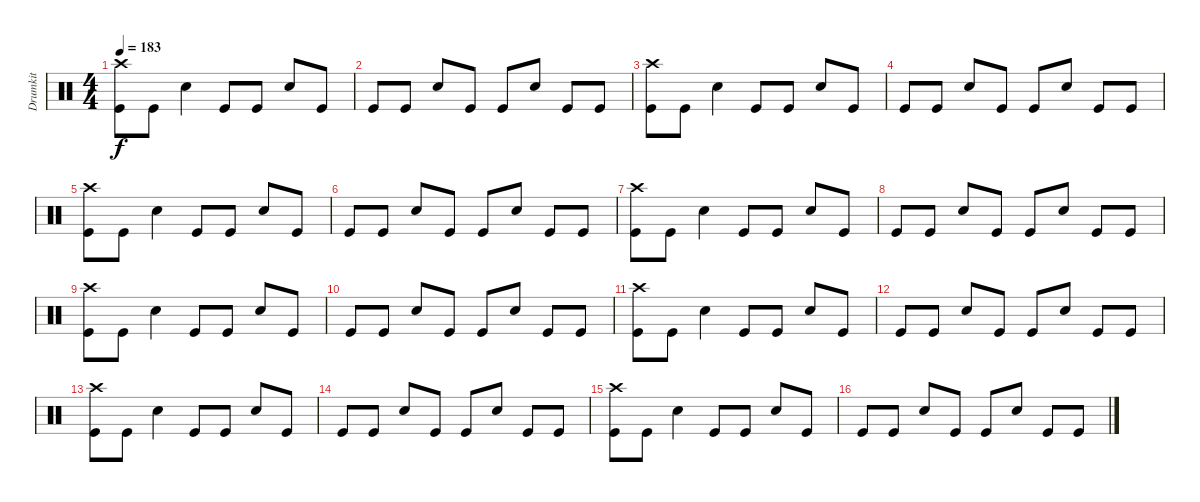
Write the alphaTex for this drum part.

\track ("Drumkit" "Drumkit") {instrument percussion}
\staff {score}
\articulation defaults
\ts (4 4)
\tempo 183
\clef neutral
\ks c
("Crash high (hit)" "Kick (hit)").8{dy f} "Kick (hit)".8 "Snare (hit) 2".4 "Kick (hit)".8 "Kick (hit)".8 "Snare (hit) 2".8 "Kick (hit)".8 |
"Kick (hit)".8 "Kick (hit)".8 "Snare (hit) 2".8 "Kick (hit)".8 "Kick (hit)".8 "Snare (hit) 2".8 "Kick (hit)".8 "Kick (hit)".8 |
("Crash high (hit)" "Kick (hit)").8 "Kick (hit)".8 "Snare (hit) 2".4 "Kick (hit)".8 "Kick (hit)".8 "Snare (hit) 2".8 "Kick (hit)".8 |
"Kick (hit)".8 "Kick (hit)".8 "Snare (hit) 2".8 "Kick (hit)".8 "Kick (hit)".8 "Snare (hit) 2".8 "Kick (hit)".8 "Kick (hit)".8 |
("Crash high (hit)" "Kick (hit)").8 "Kick (hit)".8 "Snare (hit) 2".4 "Kick (hit)".8 "Kick (hit)".8 "Snare (hit) 2".8 "Kick (hit)".8 |
"Kick (hit)".8 "Kick (hit)".8 "Snare (hit) 2".8 "Kick (hit)".8 "Kick (hit)".8 "Snare (hit) 2".8 "Kick (hit)".8 "Kick (hit)".8 |
("Crash high (hit)" "Kick (hit)").8 "Kick (hit)".8 "Snare (hit) 2".4 "Kick (hit)".8 "Kick (hit)".8 "Snare (hit) 2".8 "Kick (hit)".8 |
"Kick (hit)".8 "Kick (hit)".8 "Snare (hit) 2".8 "Kick (hit)".8 "Kick (hit)".8 "Snare (hit) 2".8 "Kick (hit)".8 "Kick (hit)".8 |
("Crash high (hit)" "Kick (hit)").8 "Kick (hit)".8 "Snare (hit) 2".4 "Kick (hit)".8 "Kick (hit)".8 "Snare (hit) 2".8 "Kick (hit)".8 |
"Kick (hit)".8 "Kick (hit)".8 "Snare (hit) 2".8 "Kick (hit)".8 "Kick (hit)".8 "Snare (hit) 2".8 "Kick (hit)".8 "Kick (hit)".8 |
("Crash high (hit)" "Kick (hit)").8 "Kick (hit)".8 "Snare (hit) 2".4 "Kick (hit)".8 "Kick (hit)".8 "Snare (hit) 2".8 "Kick (hit)".8 |
"Kick (hit)".8 "Kick (hit)".8 "Snare (hit) 2".8 "Kick (hit)".8 "Kick (hit)".8 "Snare (hit) 2".8 "Kick (hit)".8 "Kick (hit)".8 |
("Crash high (hit)" "Kick (hit)").8 "Kick (hit)".8 "Snare (hit) 2".4 "Kick (hit)".8 "Kick (hit)".8 "Snare (hit) 2".8 "Kick (hit)".8 |
"Kick (hit)".8 "Kick (hit)".8 "Snare (hit) 2".8 "Kick (hit)".8 "Kick (hit)".8 "Snare (hit) 2".8 "Kick (hit)".8 "Kick (hit)".8 |
("Crash high (hit)" "Kick (hit)").8 "Kick (hit)".8 "Snare (hit) 2".4 "Kick (hit)".8 "Kick (hit)".8 "Snare (hit) 2".8 "Kick (hit)".8 |
"Kick (hit)".8 "Kick (hit)".8 "Snare (hit) 2".8 "Kick (hit)".8 "Kick (hit)".8 "Snare (hit) 2".8 "Kick (hit)".8 "Kick (hit)".8
